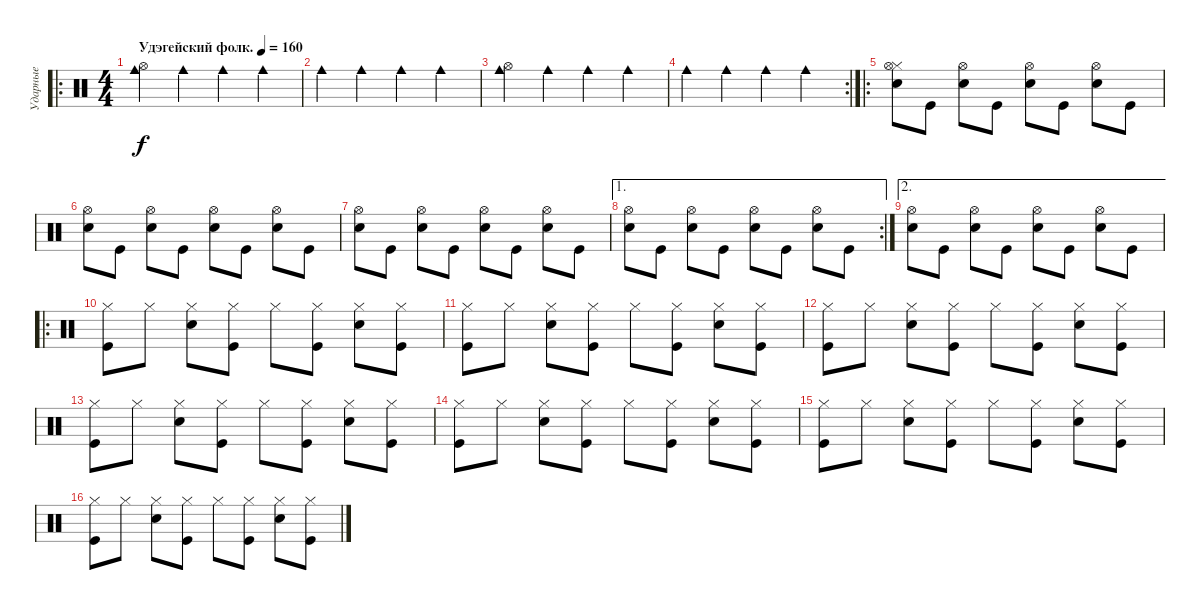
\track ("Ударные" "Ударные") {instrument percussion}
\staff {score}
\articulation defaults
\ro
\ts (4 4)
\tempo (160 "Удэгейский фолк.")
\clef neutral
\ks c
("Hi-Hat (open)" "Cowbell medium (hit)").4{dy f} "Cowbell medium (hit)".4 "Cowbell medium (hit)".4 "Cowbell medium (hit)".4 |
"Cowbell medium (hit)".4 "Cowbell medium (hit)".4 "Cowbell medium (hit)".4 "Cowbell medium (hit)".4 |
("Hi-Hat (open)" "Cowbell medium (hit)").4 "Cowbell medium (hit)".4 "Cowbell medium (hit)".4 "Cowbell medium (hit)".4 |
\rc 2 "Cowbell medium (hit)".4 "Cowbell medium (hit)".4 "Cowbell medium (hit)".4 "Cowbell medium (hit)".4
|
\ro
("Snare (hit) 2" "Hi-Hat (closed)" "Hi-Hat (open)").8 "Kick (hit)".8 ("Snare (hit) 2" "Hi-Hat (open)").8 "Kick (hit)".8 ("Snare (hit) 2" "Hi-Hat (open)").8 "Kick (hit)".8 ("Snare (hit) 2" "Hi-Hat (open)").8 "Kick (hit)".8 |
("Hi-Hat (open)" "Snare (hit) 2").8 "Kick (hit)".8 ("Hi-Hat (open)" "Snare (hit) 2").8 "Kick (hit)".8 ("Hi-Hat (open)" "Snare (hit) 2").8 "Kick (hit)".8 ("Hi-Hat (open)" "Snare (hit) 2").8 "Kick (hit)".8 |
("Snare (hit) 2" "Hi-Hat (open)").8 "Kick (hit)".8 ("Snare (hit) 2" "Hi-Hat (open)").8 "Kick (hit)".8 ("Snare (hit) 2" "Hi-Hat (open)").8 "Kick (hit)".8 ("Snare (hit) 2" "Hi-Hat (open)").8 "Kick (hit)".8 |
\ae 1
\rc 2
("Snare (hit) 2" "Hi-Hat (open)").8 "Kick (hit)".8 ("Snare (hit) 2" "Hi-Hat (open)").8 "Kick (hit)".8 ("Snare (hit) 2" "Hi-Hat (open)").8 "Kick (hit)".8 ("Snare (hit) 2" "Hi-Hat (open)").8 "Kick (hit)".8 |
\ae 2
("Snare (hit) 2" "Hi-Hat (open)").8 "Kick (hit)".8 ("Snare (hit) 2" "Hi-Hat (open)").8 "Kick (hit)".8 ("Snare (hit) 2" "Hi-Hat (open)").8 "Kick (hit)".8 ("Snare (hit) 2" "Hi-Hat (open)").8 "Kick (hit)".8 |
\ro
\ks aminor
("Hi-Hat (closed)" "Kick (hit)").8 "Hi-Hat (closed)".8 ("Hi-Hat (closed)" "Snare (hit) 2").8 ("Hi-Hat (closed)" "Kick (hit)").8 "Hi-Hat (closed)".8 ("Hi-Hat (closed)" "Kick (hit)").8 ("Hi-Hat (closed)" "Snare (hit) 2").8 ("Hi-Hat (closed)" "Kick (hit)").8 |
("Hi-Hat (closed)" "Kick (hit)").8 "Hi-Hat (closed)".8 ("Hi-Hat (closed)" "Snare (hit) 2").8 ("Hi-Hat (closed)" "Kick (hit)").8 "Hi-Hat (closed)".8 ("Hi-Hat (closed)" "Kick (hit)").8 ("Hi-Hat (closed)" "Snare (hit) 2").8 ("Hi-Hat (closed)" "Kick (hit)").8 |
("Hi-Hat (closed)" "Kick (hit)").8 "Hi-Hat (closed)".8 ("Hi-Hat (closed)" "Snare (hit) 2").8 ("Hi-Hat (closed)" "Kick (hit)").8 "Hi-Hat (closed)".8 ("Hi-Hat (closed)" "Kick (hit)").8 ("Hi-Hat (closed)" "Snare (hit) 2").8 ("Hi-Hat (closed)" "Kick (hit)").8 |
("Hi-Hat (closed)" "Kick (hit)").8 "Hi-Hat (closed)".8 ("Hi-Hat (closed)" "Snare (hit) 2").8 ("Hi-Hat (closed)" "Kick (hit)").8 "Hi-Hat (closed)".8 ("Hi-Hat (closed)" "Kick (hit)").8 ("Hi-Hat (closed)" "Snare (hit) 2").8 ("Hi-Hat (closed)" "Kick (hit)").8 |
("Hi-Hat (closed)" "Kick (hit)").8 "Hi-Hat (closed)".8 ("Hi-Hat (closed)" "Snare (hit) 2").8 ("Hi-Hat (closed)" "Kick (hit)").8 "Hi-Hat (closed)".8 ("Hi-Hat (closed)" "Kick (hit)").8 ("Hi-Hat (closed)" "Snare (hit) 2").8 ("Hi-Hat (closed)" "Kick (hit)").8 |
("Hi-Hat (closed)" "Kick (hit)").8 "Hi-Hat (closed)".8 ("Hi-Hat (closed)" "Snare (hit) 2").8 ("Hi-Hat (closed)" "Kick (hit)").8 "Hi-Hat (closed)".8 ("Hi-Hat (closed)" "Kick (hit)").8 ("Hi-Hat (closed)" "Snare (hit) 2").8 ("Hi-Hat (closed)" "Kick (hit)").8 |
("Hi-Hat (closed)" "Kick (hit)").8 "Hi-Hat (closed)".8 ("Hi-Hat (closed)" "Snare (hit) 2").8 ("Hi-Hat (closed)" "Kick (hit)").8 "Hi-Hat (closed)".8 ("Hi-Hat (closed)" "Kick (hit)").8 ("Hi-Hat (closed)" "Snare (hit) 2").8 ("Hi-Hat (closed)" "Kick (hit)").8
